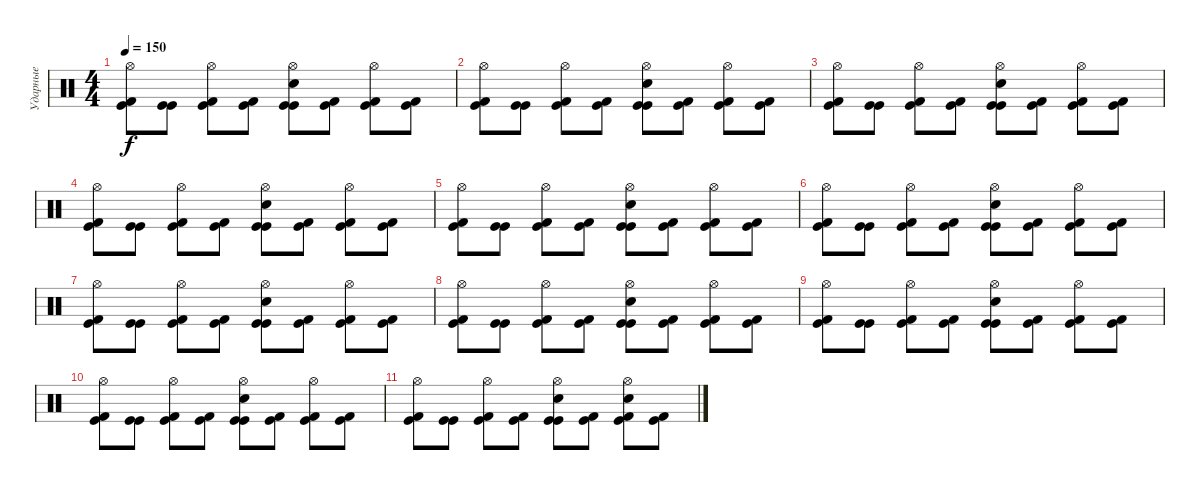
\track ("Ударные" "Ударные") {instrument percussion}
\staff {score}
\articulation defaults
\ts (4 4)
\tempo 150
\clef neutral
\ks c
("Hi-Hat (open)" "Kick (hit)" "Kick (hit) 2").8{dy f} ("Kick (hit)" "Kick (hit)").8 ("Hi-Hat (open)" "Kick (hit)" "Kick (hit) 2").8 ("Kick (hit)" "Kick (hit) 2").8 ("Hi-Hat (open)" "Electric Snare (hit)" "Kick (hit)" "Kick (hit)").8 ("Kick (hit)" "Kick (hit) 2").8 ("Hi-Hat (open)" "Kick (hit)" "Kick (hit) 2").8 ("Kick (hit)" "Kick (hit) 2").8 |
("Hi-Hat (open)" "Kick (hit)" "Kick (hit) 2").8 ("Kick (hit)" "Kick (hit)").8 ("Hi-Hat (open)" "Kick (hit)" "Kick (hit) 2").8 ("Kick (hit)" "Kick (hit) 2").8 ("Hi-Hat (open)" "Electric Snare (hit)" "Kick (hit)" "Kick (hit)").8 ("Kick (hit)" "Kick (hit) 2").8 ("Hi-Hat (open)" "Kick (hit)" "Kick (hit) 2").8 ("Kick (hit)" "Kick (hit) 2").8 |
("Hi-Hat (open)" "Kick (hit)" "Kick (hit) 2").8 ("Kick (hit)" "Kick (hit)").8 ("Hi-Hat (open)" "Kick (hit)" "Kick (hit) 2").8 ("Kick (hit)" "Kick (hit) 2").8 ("Hi-Hat (open)" "Electric Snare (hit)" "Kick (hit)" "Kick (hit)").8 ("Kick (hit)" "Kick (hit) 2").8 ("Hi-Hat (open)" "Kick (hit)" "Kick (hit) 2").8 ("Kick (hit)" "Kick (hit) 2").8 |
("Hi-Hat (open)" "Kick (hit)" "Kick (hit) 2").8 ("Kick (hit)" "Kick (hit)").8 ("Hi-Hat (open)" "Kick (hit)" "Kick (hit) 2").8 ("Kick (hit)" "Kick (hit) 2").8 ("Hi-Hat (open)" "Electric Snare (hit)" "Kick (hit)" "Kick (hit)").8 ("Kick (hit)" "Kick (hit) 2").8 ("Hi-Hat (open)" "Kick (hit)" "Kick (hit) 2").8 ("Kick (hit)" "Kick (hit) 2").8 |
("Hi-Hat (open)" "Kick (hit)" "Kick (hit) 2").8 ("Kick (hit)" "Kick (hit)").8 ("Hi-Hat (open)" "Kick (hit)" "Kick (hit) 2").8 ("Kick (hit)" "Kick (hit) 2").8 ("Hi-Hat (open)" "Electric Snare (hit)" "Kick (hit)" "Kick (hit)").8 ("Kick (hit)" "Kick (hit) 2").8 ("Hi-Hat (open)" "Kick (hit)" "Kick (hit) 2").8 ("Kick (hit)" "Kick (hit) 2").8 |
("Hi-Hat (open)" "Kick (hit)" "Kick (hit) 2").8 ("Kick (hit)" "Kick (hit)").8 ("Hi-Hat (open)" "Kick (hit)" "Kick (hit) 2").8 ("Kick (hit)" "Kick (hit) 2").8 ("Hi-Hat (open)" "Electric Snare (hit)" "Kick (hit)" "Kick (hit)").8 ("Kick (hit)" "Kick (hit) 2").8 ("Hi-Hat (open)" "Kick (hit)" "Kick (hit) 2").8 ("Kick (hit)" "Kick (hit) 2").8 |
("Hi-Hat (open)" "Kick (hit)" "Kick (hit) 2").8 ("Kick (hit)" "Kick (hit)").8 ("Hi-Hat (open)" "Kick (hit)" "Kick (hit) 2").8 ("Kick (hit)" "Kick (hit) 2").8 ("Hi-Hat (open)" "Electric Snare (hit)" "Kick (hit)" "Kick (hit)").8 ("Kick (hit)" "Kick (hit) 2").8 ("Hi-Hat (open)" "Kick (hit)" "Kick (hit) 2").8 ("Kick (hit)" "Kick (hit) 2").8 |
("Hi-Hat (open)" "Kick (hit)" "Kick (hit) 2").8 ("Kick (hit)" "Kick (hit)").8 ("Hi-Hat (open)" "Kick (hit)" "Kick (hit) 2").8 ("Kick (hit)" "Kick (hit) 2").8 ("Hi-Hat (open)" "Electric Snare (hit)" "Kick (hit)" "Kick (hit)").8 ("Kick (hit)" "Kick (hit) 2").8 ("Hi-Hat (open)" "Kick (hit)" "Kick (hit) 2").8 ("Kick (hit)" "Kick (hit) 2").8 |
("Hi-Hat (open)" "Kick (hit)" "Kick (hit) 2").8 ("Kick (hit)" "Kick (hit)").8 ("Hi-Hat (open)" "Kick (hit)" "Kick (hit) 2").8 ("Kick (hit)" "Kick (hit) 2").8 ("Hi-Hat (open)" "Electric Snare (hit)" "Kick (hit)" "Kick (hit)").8 ("Kick (hit)" "Kick (hit) 2").8 ("Hi-Hat (open)" "Kick (hit)" "Kick (hit) 2").8 ("Kick (hit)" "Kick (hit) 2").8 |
("Hi-Hat (open)" "Kick (hit)" "Kick (hit) 2").8 ("Kick (hit)" "Kick (hit)").8 ("Hi-Hat (open)" "Kick (hit)" "Kick (hit) 2").8 ("Kick (hit)" "Kick (hit) 2").8 ("Hi-Hat (open)" "Electric Snare (hit)" "Kick (hit)" "Kick (hit)").8 ("Kick (hit)" "Kick (hit) 2").8 ("Hi-Hat (open)" "Kick (hit)" "Kick (hit) 2").8 ("Kick (hit)" "Kick (hit) 2").8 |
("Hi-Hat (open)" "Kick (hit)" "Kick (hit) 2").8 ("Kick (hit)" "Kick (hit)").8 ("Hi-Hat (open)" "Kick (hit)" "Kick (hit) 2").8 ("Kick (hit)" "Kick (hit) 2").8 ("Hi-Hat (open)" "Electric Snare (hit)" "Kick (hit)" "Kick (hit)").8 ("Kick (hit)" "Kick (hit) 2").8 ("Hi-Hat (open)" "Electric Snare (hit)" "Kick (hit) 2" "Kick (hit)").8 ("Kick (hit)" "Kick (hit) 2").8
